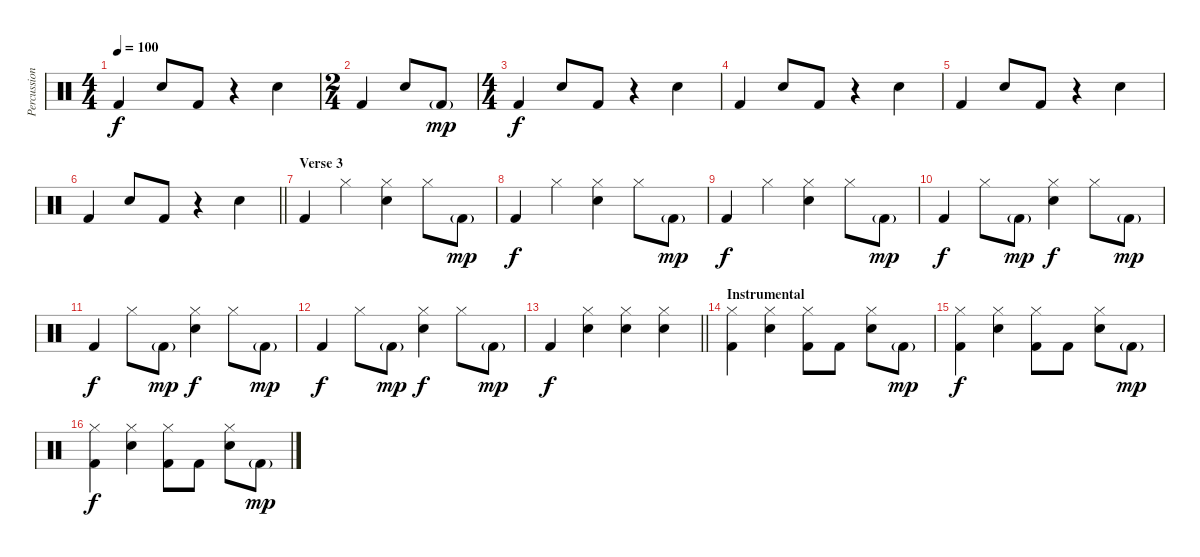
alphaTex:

\track ("Percussion" "Percussion") {instrument percussion}
\staff {score}
\articulation defaults
\ts (4 4)
\tempo 100
\clef neutral
\ks c "Kick (hit) 2".4{dy f} "Snare (hit) 2".8 "Kick (hit) 2".8
r.4 "Snare (hit) 2".4 |
\ts (2 4)
"Kick (hit) 2".4 "Snare (hit) 2".8 "Kick (hit) 2"{g}.8{dy mp} |
\ts (4 4)
"Kick (hit) 2".4{dy f} "Snare (hit) 2".8 "Kick (hit) 2".8 r.4 "Snare (hit) 2".4 |
"Kick (hit) 2".4 "Snare (hit) 2".8 "Kick (hit) 2".8 r.4 "Snare (hit) 2".4 |
"Kick (hit) 2".4 "Snare (hit) 2".8 "Kick (hit) 2".8 r.4 "Snare (hit) 2".4 |
\barLineRight lightlight "Kick (hit) 2".4 "Snare (hit) 2".8 "Kick (hit) 2".8
r.4 "Snare (hit) 2".4 |
\section ("" "Verse 3")
"Kick (hit) 2".4 "Hi-Hat (closed)".4 ("Hi-Hat (closed)" "Snare (hit) 2").4 "Hi-Hat (closed)".8 "Kick (hit) 2"{g}.8{dy mp} |
"Kick (hit) 2".4{dy f} "Hi-Hat (closed)".4 ("Hi-Hat (closed)" "Snare (hit) 2").4 "Hi-Hat (closed)".8 "Kick (hit) 2"{g}.8{dy mp} |
"Kick (hit) 2".4{dy f} "Hi-Hat (closed)".4 ("Hi-Hat (closed)" "Snare (hit) 2").4 "Hi-Hat (closed)".8 "Kick (hit) 2"{g}.8{dy mp} |
"Kick (hit) 2".4{dy f} "Hi-Hat (closed)".8 "Kick (hit) 2"{g}.8{dy mp} ("Hi-Hat (closed)" "Snare (hit) 2").4{dy f} "Hi-Hat (closed)".8 "Kick (hit) 2"{g}.8{dy mp} |
"Kick (hit) 2".4{dy f} "Hi-Hat (closed)".8 "Kick (hit) 2"{g}.8{dy mp} ("Hi-Hat (closed)" "Snare (hit) 2").4{dy f} "Hi-Hat (closed)".8 "Kick (hit) 2"{g}.8{dy mp} |
"Kick (hit) 2".4{dy f} "Hi-Hat (closed)".8 "Kick (hit) 2"{g}.8{dy mp} ("Hi-Hat (closed)" "Snare (hit) 2").4{dy f} "Hi-Hat (closed)".8 "Kick (hit) 2"{g}.8{dy mp} |
\barLineRight lightlight "Kick (hit) 2".4{dy f}
("Hi-Hat (closed)" "Snare (hit) 2").4 ("Hi-Hat (closed)" "Snare (hit) 2").4 ("Hi-Hat (closed)" "Snare (hit) 2").4 |
\section ("" "Instrumental")
("Hi-Hat (closed)" "Kick (hit) 2").4 ("Hi-Hat (closed)" "Snare (hit) 2").4 ("Hi-Hat (closed)" "Kick (hit) 2").8 "Kick (hit) 2".8 ("Hi-Hat (closed)" "Snare (hit) 2").8 "Kick (hit) 2"{g}.8{dy mp} |
("Hi-Hat (closed)" "Kick (hit) 2").4{dy f} ("Hi-Hat (closed)" "Snare (hit) 2").4 ("Hi-Hat (closed)" "Kick (hit) 2").8 "Kick (hit) 2".8 ("Hi-Hat (closed)" "Snare (hit) 2").8 "Kick (hit) 2"{g}.8{dy mp} |
("Hi-Hat (closed)" "Kick (hit) 2").4{dy f} ("Hi-Hat (closed)" "Snare (hit) 2").4 ("Hi-Hat (closed)" "Kick (hit) 2").8 "Kick (hit) 2".8 ("Hi-Hat (closed)" "Snare (hit) 2").8 "Kick (hit) 2"{g}.8{dy mp}
